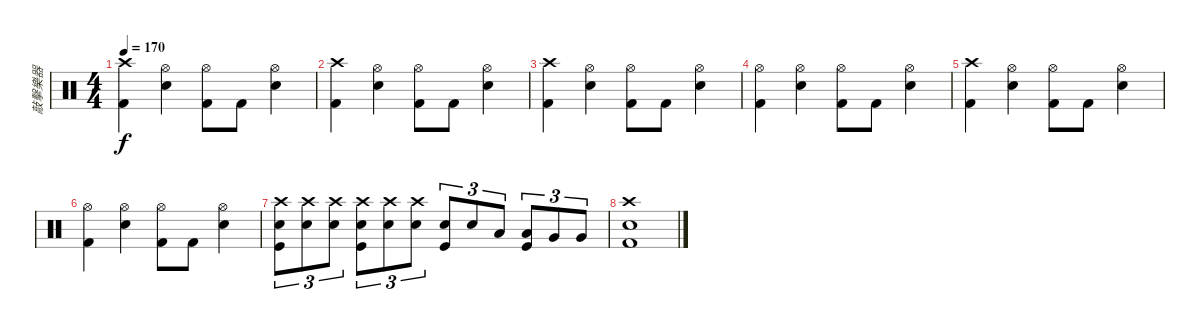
\track ("敲擊樂器" "敲擊樂器") {instrument percussion}
\staff {score}
\articulation defaults
\ts (4 4)
\tempo 170
\clef neutral
\ks c
("Crash high (hit)" "Kick (hit) 2").4{dy f} ("Hi-Hat (open)" "Snare (hit) 2").4 ("Hi-Hat (open)" "Kick (hit) 2").8 "Kick (hit) 2".8 ("Hi-Hat (open)" "Snare (hit) 2").4 |
("Crash high (hit)" "Kick (hit) 2").4 ("Hi-Hat (open)" "Snare (hit) 2").4 ("Hi-Hat (open)" "Kick (hit) 2").8 "Kick (hit) 2".8 ("Hi-Hat (open)" "Snare (hit) 2").4 |
("Crash high (hit)" "Kick (hit) 2").4 ("Hi-Hat (open)" "Snare (hit) 2").4 ("Hi-Hat (open)" "Kick (hit) 2").8 "Kick (hit) 2".8 ("Hi-Hat (open)" "Snare (hit) 2").4 |
("Hi-Hat (open)" "Kick (hit) 2").4 ("Hi-Hat (open)" "Snare (hit) 2").4 ("Hi-Hat (open)" "Kick (hit) 2").8 "Kick (hit) 2".8 ("Hi-Hat (open)" "Snare (hit) 2").4 |
("Crash high (hit)" "Kick (hit) 2").4 ("Hi-Hat (open)" "Snare (hit) 2").4 ("Hi-Hat (open)" "Kick (hit) 2").8 "Kick (hit) 2".8 ("Hi-Hat (open)" "Snare (hit) 2").4 |
("Hi-Hat (open)" "Kick (hit) 2").4 ("Hi-Hat (open)" "Snare (hit) 2").4 ("Hi-Hat (open)" "Kick (hit) 2").8 "Kick (hit) 2".8 ("Hi-Hat (open)" "Snare (hit) 2").4 |
("Crash high (hit)" "Snare (hit) 2" "Kick (hit)").8{tu (3 2)} ("Crash high (hit)" "Snare (hit) 2").8{tu (3 2)} ("Crash high (hit)" "Snare (hit) 2").8{tu (3 2)} ("Crash high (hit)" "Snare (hit) 2" "Kick (hit)").8{tu (3 2)} ("Crash high (hit)" "Snare (hit) 2").8{tu (3 2)} ("Crash high (hit)" "Snare (hit) 2").8{tu (3 2)} ("Snare (hit) 2" "Kick (hit)").8{tu (3 2)} "Snare (hit) 2".8{tu (3 2)} "Low Tom (hit)".8{tu (3 2)} ("Low Tom (hit)" "Kick (hit)").8{tu (3 2)} "Very Low Tom (hit)".8{tu (3 2)} "Very Low Tom (hit)".8{tu (3 2)} |
("Snare (hit) 2" "Crash high (hit)" "Kick (hit) 2").1
